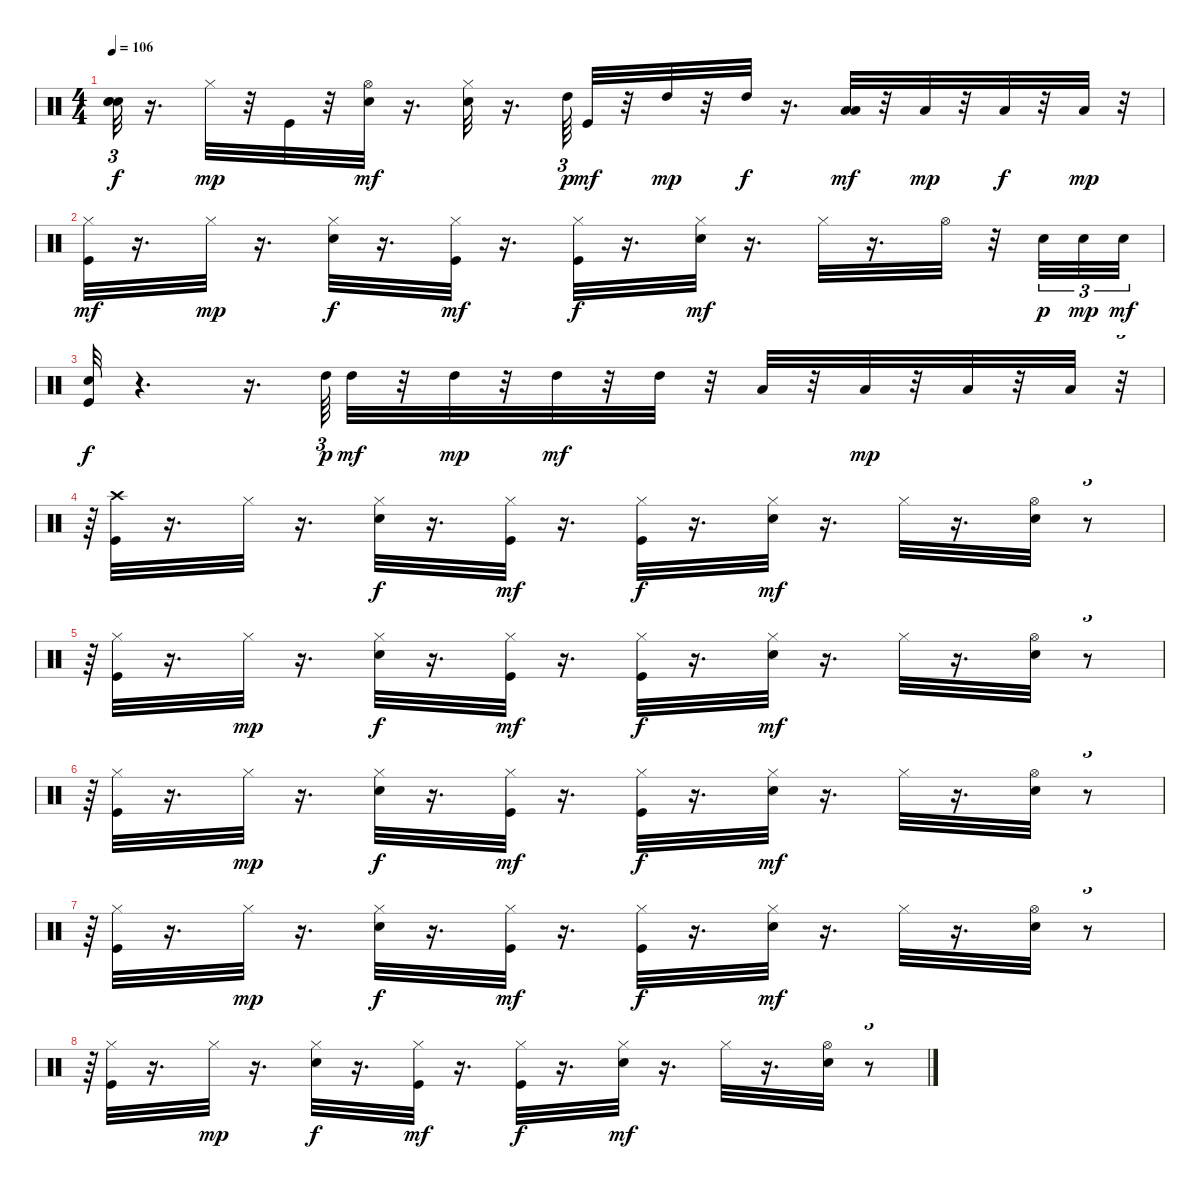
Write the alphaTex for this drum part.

\track "" {instrument percussion}
\staff {score}
\articulation defaults
\ts (4 4)
\tempo 106
\clef neutral
\ks c
("Snare (hit)"{t} "Snare (hit)"{t} "Snare (hit)"{t}).32{tu (3 2) dy f} r.16{d} "Hi-Hat (closed)".32{dy mp} r.32 "Kick (hit)".32 r.32 ("Snare (hit) 2" "Hi-Hat (open)").32{dy mf} r.16{d} ("Snare (hit) 2" "Hi-Hat (closed)").32 r.16{d} "High Tom (hit)".64{tu (3 2) dy p} "Kick (hit)".32{dy mf} r.32 "High Tom (hit)".32{dy mp} r.32 "High Tom (hit)".32{dy f} r.16{d} ("Low Tom (hit)" "Low Tom (hit)").32{dy mf} r.32 "Low Tom (hit)".32{dy mp} r.32 "Low Tom (hit)".32{dy f} r.32 "Low Tom (hit)".32{dy mp} r.32 |
("Kick (hit)" "Hi-Hat (closed)").32{dy mf} r.16{d} "Hi-Hat (closed)".32{dy mp} r.16{d} ("Snare (hit) 2" "Hi-Hat (closed)").32{dy f} r.16{d} ("Kick (hit)" "Hi-Hat (closed)").32{dy mf} r.16{d} ("Kick (hit)" "Hi-Hat (closed)").32{dy f} r.16{d} ("Snare (hit) 2" "Hi-Hat (closed)").32{dy mf} r.16{d} "Hi-Hat (closed)".32 r.16{d} "Hi-Hat (open)".32 r.32 "Snare (hit) 2".32{tu (3 2) dy p} "Snare (hit) 2".32{tu (3 2) dy mp} "Snare (hit) 2".32{tu (3 2) dy mf} |
("Kick (hit)" "Snare (hit) 2").32{dy f} r.4{d} r.16{d} "High Tom (hit)".64{tu (3 2) dy p} "High Tom (hit)".32{dy mf} r.32 "High Tom (hit)".32{dy mp} r.32 "High Tom (hit)".32{dy mf} r.32 "High Tom (hit)".32 r.32 "Low Tom (hit)".32 r.32 "Low Tom (hit)".32{dy mp} r.32 "Low Tom (hit)".32 r.32 "Low Tom (hit)".32 r.32{tu (3 2)} |
r.64{tu (3 2)} ("Kick (hit)" "Crash high (hit)").32 r.16{d} "Hi-Hat (closed)".32 r.16{d} ("Snare (hit) 2" "Hi-Hat (closed)").32{dy f} r.16{d} ("Kick (hit)" "Hi-Hat (closed)").32{dy mf} r.16{d} ("Kick (hit)" "Hi-Hat (closed)").32{dy f} r.16{d} ("Snare (hit) 2" "Hi-Hat (closed)").32{dy mf} r.16{d} "Hi-Hat (closed)".32 r.16{d} ("Snare (hit) 2" "Hi-Hat (open)").32 r.8{tu (3 2)} |
r.64{tu (3 2)} ("Kick (hit)" "Hi-Hat (closed)").32 r.16{d} "Hi-Hat (closed)".32{dy mp} r.16{d} ("Snare (hit) 2" "Hi-Hat (closed)").32{dy f} r.16{d} ("Kick (hit)" "Hi-Hat (closed)").32{dy mf} r.16{d} ("Kick (hit)" "Hi-Hat (closed)").32{dy f} r.16{d} ("Snare (hit) 2" "Hi-Hat (closed)").32{dy mf} r.16{d} "Hi-Hat (closed)".32 r.16{d} ("Snare (hit) 2" "Hi-Hat (open)").32 r.8{tu (3 2)} |
r.64{tu (3 2)} ("Kick (hit)" "Hi-Hat (closed)").32 r.16{d} "Hi-Hat (closed)".32{dy mp} r.16{d} ("Snare (hit) 2" "Hi-Hat (closed)").32{dy f} r.16{d} ("Kick (hit)" "Hi-Hat (closed)").32{dy mf} r.16{d} ("Kick (hit)" "Hi-Hat (closed)").32{dy f} r.16{d} ("Snare (hit) 2" "Hi-Hat (closed)").32{dy mf} r.16{d} "Hi-Hat (closed)".32 r.16{d} ("Snare (hit) 2" "Hi-Hat (open)").32 r.8{tu (3 2)} |
r.64{tu (3 2)} ("Kick (hit)" "Hi-Hat (closed)").32 r.16{d} "Hi-Hat (closed)".32{dy mp} r.16{d} ("Snare (hit) 2" "Hi-Hat (closed)").32{dy f} r.16{d} ("Kick (hit)" "Hi-Hat (closed)").32{dy mf} r.16{d} ("Kick (hit)" "Hi-Hat (closed)").32{dy f} r.16{d} ("Snare (hit) 2" "Hi-Hat (closed)").32{dy mf} r.16{d} "Hi-Hat (closed)".32 r.16{d} ("Snare (hit) 2" "Hi-Hat (open)").32 r.8{tu (3 2)} |
r.64{tu (3 2)} ("Kick (hit)" "Hi-Hat (closed)").32 r.16{d} "Hi-Hat (closed)".32{dy mp} r.16{d} ("Snare (hit) 2" "Hi-Hat (closed)").32{dy f} r.16{d} ("Kick (hit)" "Hi-Hat (closed)").32{dy mf} r.16{d} ("Kick (hit)" "Hi-Hat (closed)").32{dy f} r.16{d} ("Snare (hit) 2" "Hi-Hat (closed)").32{dy mf} r.16{d} "Hi-Hat (closed)".32 r.16{d} ("Snare (hit) 2" "Hi-Hat (open)").32 r.8{tu (3 2)}
